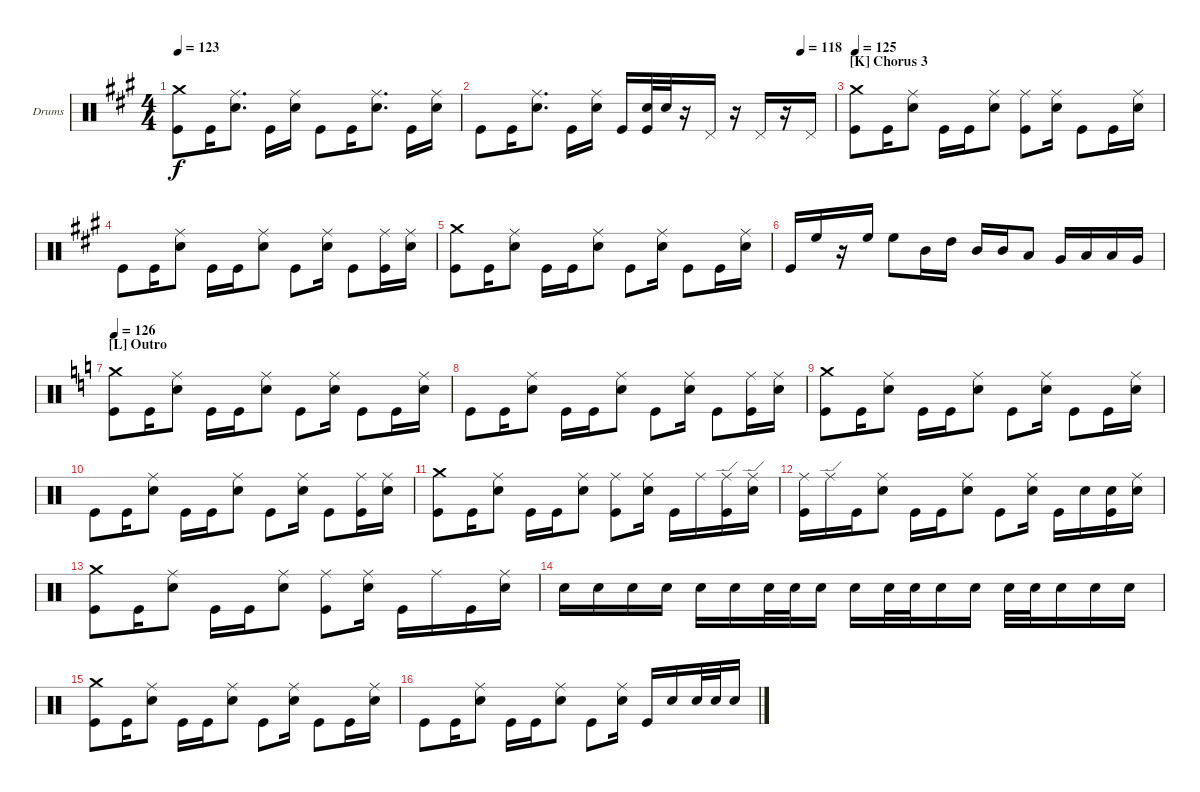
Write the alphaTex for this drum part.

\bracketExtendMode groupsimilarinstruments
\firstSystemTrackNameOrientation horizontal
\otherSystemsTrackNameOrientation horizontal
\track ("Vinny Appice" "Drums") {instrument percussion}
\staff {score}
\articulation defaults
\ts (4 4)
\tempo 123
\clef neutral
\ks f#minor
("Crash medium (hit)" "Kick (hit)").8{dy f} "Kick (hit)".16 ("Snare (hit) 2" "Ride (middle)").8{d} "Kick (hit)".16 ("Ride (middle)" "Snare (hit) 2").16 "Kick (hit)".8 "Kick (hit)".16 ("Snare (hit) 2" "Ride (middle)").8{d} "Kick (hit)".16 ("Snare (hit) 2" "Ride (middle)").16 |
\tempo (118 0.90625)
"Kick (hit)".8 "Kick (hit)".16 ("Snare (hit) 2" "Ride (middle)").8{d} "Kick (hit)".16 ("Snare (hit) 2" "Ride (middle)").16 "Kick (hit)".16 ("Kick (hit)" "Snare (hit) 2").32 "Snare (hit) 2".32 r.16 "Pedal Hi-Hat (hit)".16 r.16 "Pedal Hi-Hat (hit)".16 r.16 "Pedal Hi-Hat (hit)".16 |
\section ("K" "Chorus 3")
\tempo 125
("Crash medium (hit)" "Kick (hit)").8 "Kick (hit)".16 ("Snare (hit) 2" "Ride (middle)").8 "Kick (hit)".16 "Kick (hit)".16 ("Snare (hit) 2" "Ride (middle)").8 ("Kick (hit)" "Ride (middle)").8 ("Snare (hit) 2" "Ride (middle)").16 "Kick (hit)".8 "Kick (hit)".16 ("Snare (hit) 2" "Ride (middle)").16 |
"Kick (hit)".8 "Kick (hit)".16 ("Snare (hit) 2" "Ride (middle)").8 "Kick (hit)".16 "Kick (hit)".16 ("Snare (hit) 2" "Ride (middle)").8 "Kick (hit)".8 ("Snare (hit) 2" "Ride (middle)").16 "Kick (hit)".8 ("Kick (hit)" "Ride (middle)").16 ("Snare (hit) 2" "Ride (middle)").16 |
("Crash medium (hit)" "Kick (hit)").8 "Kick (hit)".16 ("Snare (hit) 2" "Ride (middle)").8 "Kick (hit)".16 "Kick (hit)".16 ("Snare (hit) 2" "Ride (middle)").8 "Kick (hit)".8 ("Snare (hit) 2" "Ride (middle)").16 "Kick (hit)".8 "Kick (hit)".16 ("Snare (hit) 2" "Ride (middle)").16 |
"Kick (hit)".16 "High Floor Tom (hit)".16 r.16 "High Floor Tom (hit)".16 "High Floor Tom (hit)".8 "Mid Tom (hit)".16 "High Tom (hit)".16 "Mid Tom (hit)".16 "Mid Tom (hit)".16 "Low Tom (hit)".8 "Very Low Tom (hit)".16 "Low Tom (hit)".16 "Low Tom (hit)".16 "Very Low Tom (hit)".16 |
\section ("L" "Outro")
\tempo 126
\ks aminor
("Crash medium (hit)" "Kick (hit)").8 "Kick (hit)".16 ("Snare (hit) 2" "Ride (middle)").8 "Kick (hit)".16 "Kick (hit)".16 ("Snare (hit) 2" "Ride (middle)").8 "Kick (hit)".8 ("Snare (hit) 2" "Ride (middle)").16 "Kick (hit)".8 "Kick (hit)".16 ("Snare (hit) 2" "Ride (middle)").16 |
"Kick (hit)".8 "Kick (hit)".16 ("Snare (hit) 2" "Ride (middle)").8 "Kick (hit)".16 "Kick (hit)".16 ("Snare (hit) 2" "Ride (middle)").8 "Kick (hit)".8 ("Snare (hit) 2" "Ride (middle)").16 "Kick (hit)".8 ("Kick (hit)" "Ride (middle)").16 ("Snare (hit) 2" "Ride (middle)").16 |
("Crash medium (hit)" "Kick (hit)").8 "Kick (hit)".16 ("Snare (hit) 2" "Ride (middle)").8 "Kick (hit)".16 "Kick (hit)".16 ("Snare (hit) 2" "Ride (middle)").8 "Kick (hit)".8 ("Snare (hit) 2" "Ride (middle)").16 "Kick (hit)".8 "Kick (hit)".16 ("Snare (hit) 2" "Ride (middle)").16 |
"Kick (hit)".8 "Kick (hit)".16 ("Snare (hit) 2" "Ride (middle)").8 "Kick (hit)".16 "Kick (hit)".16 ("Snare (hit) 2" "Ride (middle)").8 "Kick (hit)".8 ("Snare (hit) 2" "Ride (middle)").16 "Kick (hit)".8 ("Kick (hit)" "Ride (middle)").16 ("Snare (hit) 2" "Ride (middle)").16 |
("Crash medium (hit)" "Kick (hit)").8 "Kick (hit)".16 ("Snare (hit) 2" "Ride (middle)").8 "Kick (hit)".16 "Kick (hit)".16 ("Snare (hit) 2" "Ride (middle)").8 ("Kick (hit)" "Ride (middle)").8 ("Snare (hit) 2" "Ride (middle)").16 "Kick (hit)".16 "Ride (middle)".16 ("Kick (hit)" "Ride (edge)").16 ("Snare (hit) 2" "Ride (edge)").16 |
("Kick (hit)" "Ride (middle)").16 "Ride (edge)".16 "Kick (hit)".16 ("Snare (hit) 2" "Ride (middle)").8 "Kick (hit)".16 "Kick (hit)".16 ("Snare (hit) 2" "Ride (middle)").8 "Kick (hit)".8 ("Snare (hit) 2" "Ride (middle)").16 "Kick (hit)".16 "Snare (hit) 2".16 ("Kick (hit)" "Snare (hit) 2").16 ("Ride (middle)" "Snare (hit) 2").16 |
("Crash medium (hit)" "Kick (hit)").8 "Kick (hit)".16 ("Snare (hit) 2" "Ride (middle)").8 "Kick (hit)".16 "Kick (hit)".16 ("Snare (hit) 2" "Ride (middle)").8 ("Kick (hit)" "Ride (middle)").8 ("Snare (hit) 2" "Ride (middle)").16 "Kick (hit)".16 "Ride (middle)".16 "Kick (hit)".16 ("Snare (hit) 2" "Ride (middle)").16 |
"Snare (hit) 2".16 "Snare (hit) 2".16 "Snare (hit) 2".16 "Snare (hit) 2".16 "Snare (hit) 2".16 "Snare (hit) 2".16 "Snare (hit) 2".32 "Snare (hit) 2".32 "Snare (hit) 2".16 "Snare (hit) 2".16 "Snare (hit) 2".32 "Snare (hit) 2".32 "Snare (hit) 2".16 "Snare (hit) 2".16 "Snare (hit) 2".32 "Snare (hit) 2".32 "Snare (hit) 2".16 "Snare (hit) 2".16 "Snare (hit) 2".16 |
("Crash medium (hit)" "Kick (hit)").8 "Kick (hit)".16 ("Snare (hit) 2" "Ride (middle)").8 "Kick (hit)".16 "Kick (hit)".16 ("Snare (hit) 2" "Ride (middle)").8 "Kick (hit)".8 ("Snare (hit) 2" "Ride (middle)").16 "Kick (hit)".8 "Kick (hit)".16 ("Snare (hit) 2" "Ride (middle)").16 |
"Kick (hit)".8 "Kick (hit)".16 ("Snare (hit) 2" "Ride (middle)").8 "Kick (hit)".16 "Kick (hit)".16 ("Snare (hit) 2" "Ride (middle)").8 "Kick (hit)".8 ("Snare (hit) 2" "Ride (middle)").16 "Kick (hit)".16 "Snare (hit) 2".16 "Snare (hit) 2".32 "Snare (hit) 2".32 "Snare (hit) 2".16
